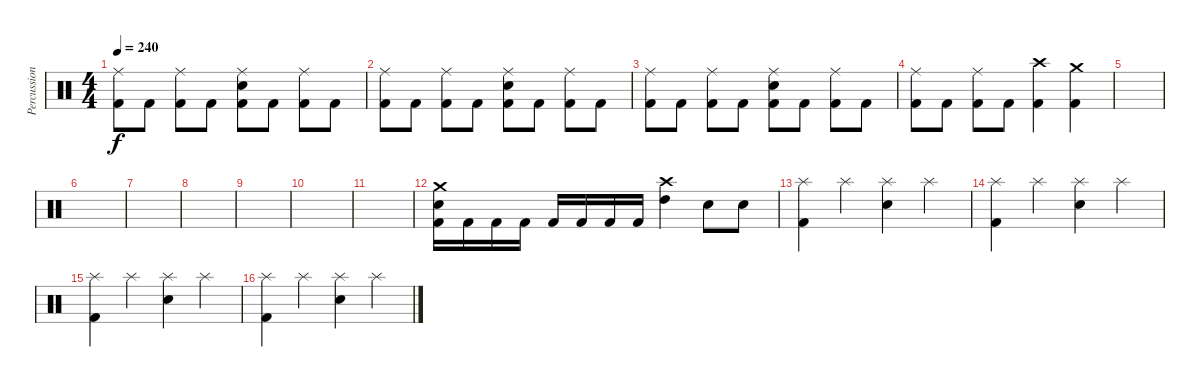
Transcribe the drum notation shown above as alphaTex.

\track ("Percussions" "Percussion") {instrument percussion}
\staff {score}
\articulation defaults
\ts (4 4)
\tempo 240
\clef neutral
\ks c
("Ride (middle)" "Kick (hit) 2").8{dy f} "Kick (hit) 2".8 ("Ride (middle)" "Kick (hit) 2").8 "Kick (hit) 2".8 ("Ride (middle)" "Electric Snare (hit)" "Kick (hit) 2").8 "Kick (hit) 2".8 ("Ride (middle)" "Kick (hit) 2").8 "Kick (hit) 2".8 |
("Ride (middle)" "Kick (hit) 2").8 "Kick (hit) 2".8 ("Ride (middle)" "Kick (hit) 2").8 "Kick (hit) 2".8 ("Ride (middle)" "Electric Snare (hit)" "Kick (hit) 2").8 "Kick (hit) 2".8 ("Ride (middle)" "Kick (hit) 2").8 "Kick (hit) 2".8 |
("Ride (middle)" "Kick (hit) 2").8 "Kick (hit) 2".8 ("Ride (middle)" "Kick (hit) 2").8 "Kick (hit) 2".8 ("Ride (middle)" "Electric Snare (hit)" "Kick (hit) 2").8 "Kick (hit) 2".8 ("Ride (middle)" "Kick (hit) 2").8 "Kick (hit) 2".8 |
("Ride (middle)" "Kick (hit) 2").8 "Kick (hit) 2".8 ("Ride (middle)" "Kick (hit) 2").8 "Kick (hit) 2".8 ("Crash high (hit)" "Kick (hit) 2").4 ("Crash medium (hit)" "Kick (hit) 2").4 |
|
|
|
|
|
|
|
("Crash medium (hit)" "Electric Snare (hit)" "Kick (hit) 2").16 "Kick (hit) 2".16 "Kick (hit) 2".16 "Kick (hit) 2".16 "Kick (hit) 2".16 "Kick (hit) 2".16 "Kick (hit) 2".16 "Kick (hit) 2".16 ("Crash high (hit)" "High Tom (hit)").4 "Electric Snare (hit)".8 "Electric Snare (hit)".8 |
("Splash (hit)" "Kick (hit) 2").4 "Splash (hit)".4 ("Splash (hit)" "Electric Snare (hit)").4 "Splash (hit)".4 |
("Splash (hit)" "Kick (hit) 2").4 "Splash (hit)".4 ("Splash (hit)" "Electric Snare (hit)").4 "Splash (hit)".4 |
("Splash (hit)" "Kick (hit) 2").4 "Splash (hit)".4 ("Splash (hit)" "Electric Snare (hit)").4 "Splash (hit)".4 |
("Splash (hit)" "Kick (hit) 2").4 "Splash (hit)".4 ("Splash (hit)" "Electric Snare (hit)").4 "Splash (hit)".4
